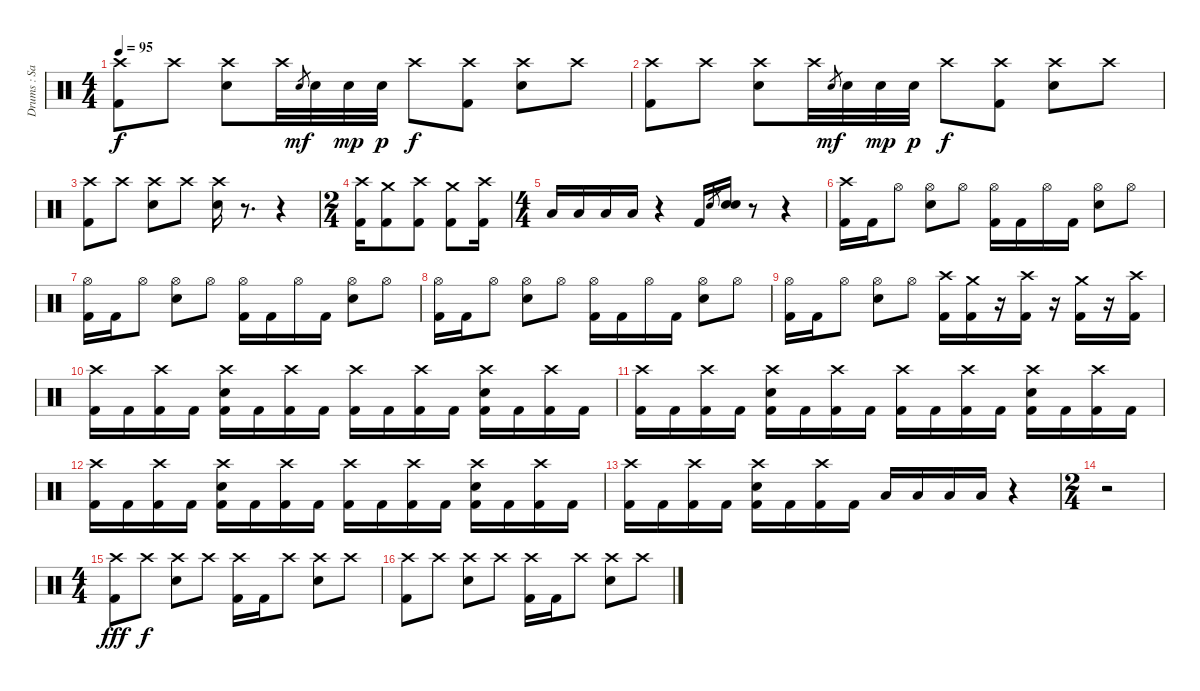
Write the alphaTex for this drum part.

\track ("Drums : Sammy Siegler" "Drums : Sa") {instrument percussion}
\staff {score}
\articulation defaults
\ts (4 4)
\tempo 95
\clef neutral
\ks c
("Crash high (hit)" "Kick (hit) 2").8{dy f} "Crash high (hit)".8 ("Crash high (hit)" "Electric Snare (hit)").8 "Crash high (hit)".32 "Electric Snare (hit)".8{gr dy mf} "Electric Snare (hit)".32 "Electric Snare (hit)".32{dy mp} "Electric Snare (hit)".32{dy p} "Crash high (hit)".8{dy f} ("Crash high (hit)" "Kick (hit) 2").8 ("Crash high (hit)" "Electric Snare (hit)").8 "Crash high (hit)".8 |
("Crash high (hit)" "Kick (hit) 2").8 "Crash high (hit)".8 ("Crash high (hit)" "Electric Snare (hit)").8 "Crash high (hit)".32 "Electric Snare (hit)".8{gr dy mf} "Electric Snare (hit)".32 "Electric Snare (hit)".32{dy mp} "Electric Snare (hit)".32{dy p} "Crash high (hit)".8{dy f} ("Crash high (hit)" "Kick (hit) 2").8 ("Crash high (hit)" "Electric Snare (hit)").8 "Crash high (hit)".8 |
("Crash high (hit)" "Kick (hit) 2").8 "Crash high (hit)".8 ("Crash high (hit)" "Electric Snare (hit)").8 "Crash high (hit)".8 ("Crash high (hit)" "Electric Snare (hit)").16 r.8{d} r.4 |
\ts (2 4)
("Crash high (hit)" "Kick (hit) 2").16 ("Crash medium (hit)" "Kick (hit) 2").8 ("Crash high (hit)" "Kick (hit) 2").8 ("Crash medium (hit)" "Kick (hit) 2").8 ("Crash high (hit)" "Kick (hit) 2").16 |
\ts (4 4)
"Low Floor Tom (hit)".16 "Low Tom (hit)".16 "Low Floor Tom (hit)".16 "Low Floor Tom (hit)".16 r.4 "Kick (hit) 2".16 "Electric Snare (hit)".8{gr} ("Electric Snare (hit)" "Electric Snare (hit)").16 r.8 r.4 |
("Crash high (hit)" "Kick (hit) 2").16 "Kick (hit) 2".16 "Hi-Hat (open)".8 ("Hi-Hat (open)" "Electric Snare (hit)").8 "Hi-Hat (open)".8 ("Hi-Hat (open)" "Kick (hit) 2").16 "Kick (hit) 2".16 "Hi-Hat (open)".16 "Kick (hit) 2".16 ("Hi-Hat (open)" "Electric Snare (hit)").8 "Hi-Hat (open)".8 |
("Hi-Hat (open)" "Kick (hit) 2").16 "Kick (hit) 2".16 "Hi-Hat (open)".8 ("Hi-Hat (open)" "Electric Snare (hit)").8 "Hi-Hat (open)".8 ("Hi-Hat (open)" "Kick (hit) 2").16 "Kick (hit) 2".16 "Hi-Hat (open)".16 "Kick (hit) 2".16 ("Hi-Hat (open)" "Electric Snare (hit)").8 "Hi-Hat (open)".8 |
("Hi-Hat (open)" "Kick (hit) 2").16 "Kick (hit) 2".16 "Hi-Hat (open)".8 ("Hi-Hat (open)" "Electric Snare (hit)").8 "Hi-Hat (open)".8 ("Hi-Hat (open)" "Kick (hit) 2").16 "Kick (hit) 2".16 "Hi-Hat (open)".16 "Kick (hit) 2".16 ("Hi-Hat (open)" "Electric Snare (hit)").8 "Hi-Hat (open)".8 |
("Hi-Hat (open)" "Kick (hit) 2").16 "Kick (hit) 2".16 "Hi-Hat (open)".8 ("Hi-Hat (open)" "Electric Snare (hit)").8 "Hi-Hat (open)".8 ("Crash high (hit)" "Kick (hit) 2").16{volume 16 balance 8} ("Crash medium (hit)" "Kick (hit) 2").16 r.16 ("Crash high (hit)" "Kick (hit) 2").16 r.16 ("Crash medium (hit)" "Kick (hit) 2").16 r.16 ("Crash high (hit)" "Kick (hit) 2").16 |
("Crash high (hit)" "Kick (hit) 2").16 "Kick (hit) 2".16 ("Crash high (hit)" "Kick (hit) 2").16 "Kick (hit) 2".16 ("Crash high (hit)" "Electric Snare (hit)" "Kick (hit) 2").16 "Kick (hit) 2".16 ("Crash high (hit)" "Kick (hit) 2").16 "Kick (hit) 2".16 ("Crash high (hit)" "Kick (hit) 2").16 "Kick (hit) 2".16 ("Crash high (hit)" "Kick (hit) 2").16 "Kick (hit) 2".16 ("Crash high (hit)" "Electric Snare (hit)" "Kick (hit) 2").16 "Kick (hit) 2".16 ("Crash high (hit)" "Kick (hit) 2").16 "Kick (hit) 2".16 |
("Crash high (hit)" "Kick (hit) 2").16 "Kick (hit) 2".16 ("Crash high (hit)" "Kick (hit) 2").16 "Kick (hit) 2".16 ("Crash high (hit)" "Electric Snare (hit)" "Kick (hit) 2").16 "Kick (hit) 2".16 ("Crash high (hit)" "Kick (hit) 2").16 "Kick (hit) 2".16 ("Crash high (hit)" "Kick (hit) 2").16 "Kick (hit) 2".16 ("Crash high (hit)" "Kick (hit) 2").16 "Kick (hit) 2".16 ("Crash high (hit)" "Electric Snare (hit)" "Kick (hit) 2").16 "Kick (hit) 2".16 ("Crash high (hit)" "Kick (hit) 2").16 "Kick (hit) 2".16 |
("Crash high (hit)" "Kick (hit) 2").16 "Kick (hit) 2".16 ("Crash high (hit)" "Kick (hit) 2").16 "Kick (hit) 2".16 ("Crash high (hit)" "Electric Snare (hit)" "Kick (hit) 2").16 "Kick (hit) 2".16 ("Crash high (hit)" "Kick (hit) 2").16 "Kick (hit) 2".16 ("Crash high (hit)" "Kick (hit) 2").16 "Kick (hit) 2".16 ("Crash high (hit)" "Kick (hit) 2").16 "Kick (hit) 2".16 ("Crash high (hit)" "Electric Snare (hit)" "Kick (hit) 2").16 "Kick (hit) 2".16 ("Crash high (hit)" "Kick (hit) 2").16 "Kick (hit) 2".16 |
("Crash high (hit)" "Kick (hit) 2").16 "Kick (hit) 2".16 ("Crash high (hit)" "Kick (hit) 2").16 "Kick (hit) 2".16 ("Crash high (hit)" "Electric Snare (hit)" "Kick (hit) 2").16 "Kick (hit) 2".16 ("Crash high (hit)" "Kick (hit) 2").16 "Kick (hit) 2".16 "Low Floor Tom (hit)".16{volume 13 balance 8} "Low Tom (hit)".16 "Low Floor Tom (hit)".16 "Low Floor Tom (hit)".16 r.4 |
\ts (2 4)
r.2 |
\ts (4 4)
("Crash high (hit)" "Kick (hit) 2").8{dy fff} "Crash high (hit)".8{dy f} ("Crash high (hit)" "Electric Snare (hit)").8 "Crash high (hit)".8 ("Crash high (hit)" "Kick (hit) 2").16 "Kick (hit) 2".16 "Crash high (hit)".8 ("Crash high (hit)" "Electric Snare (hit)").8 "Crash high (hit)".8 |
("Crash high (hit)" "Kick (hit) 2").8 "Crash high (hit)".8 ("Crash high (hit)" "Electric Snare (hit)").8 "Crash high (hit)".8 ("Crash high (hit)" "Kick (hit) 2").16 "Kick (hit) 2".16 "Crash high (hit)".8 ("Crash high (hit)" "Electric Snare (hit)").8 "Crash high (hit)".8
